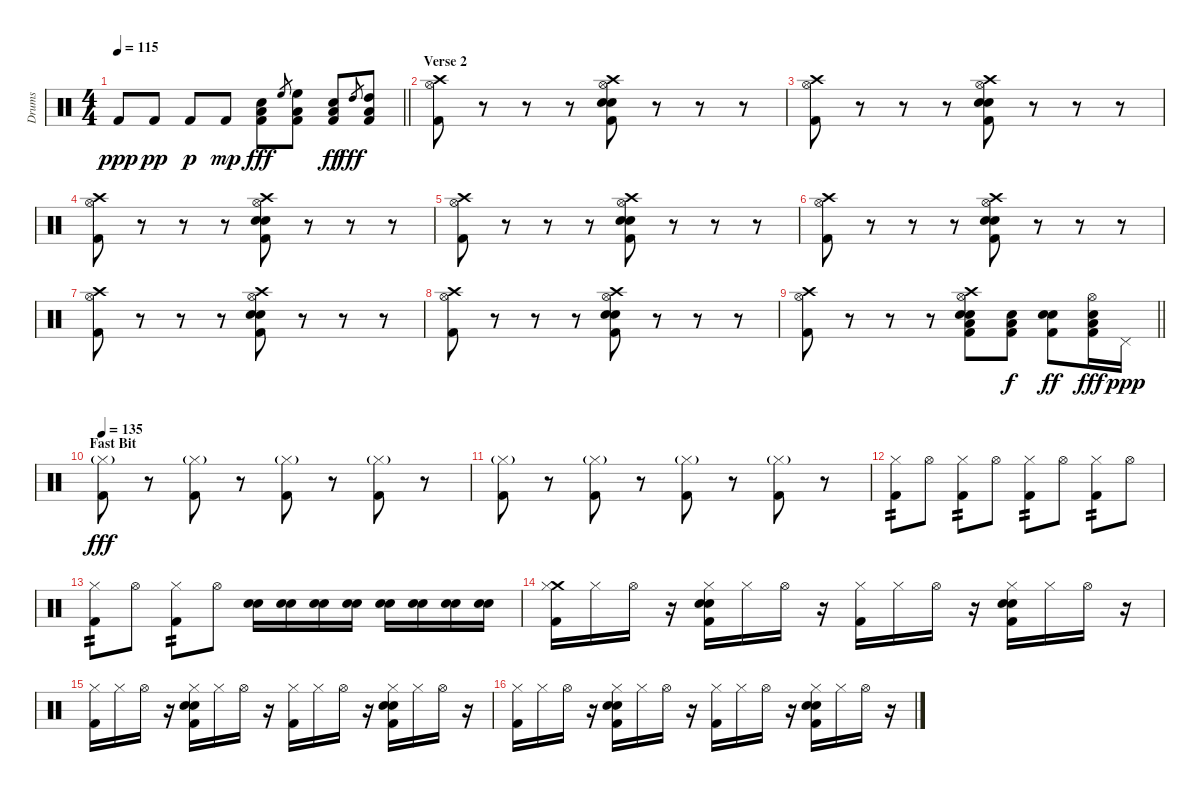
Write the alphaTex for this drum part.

\track ("Drums" "Drums") {instrument percussion}
\staff {score}
\articulation defaults
\ts (4 4)
\tempo 115
\clef neutral
\barLineRight lightlight
\ks c "Kick (hit) 2".8{dy ppp} "Kick (hit) 2".8{dy pp} "Kick (hit) 2".8{dy p} "Kick (hit) 2".8{dy mp}
("Snare (hit) 2" "Low Floor Tom (hit)" "Kick (hit) 2").8{dy fff} "High Floor Tom (hit)".8{gr} ("High Floor Tom (hit)" "Low Floor Tom (hit)" "Kick (hit) 2").8 ("Electric Snare (hit)" "Low Floor Tom (hit)" "Kick (hit) 2").8{dy ff} "High Tom (hit)".8{gr dy fff} ("High Tom (hit)" "Low Floor Tom (hit)" "Kick (hit) 2").8 |
\section ("" "Verse 2")
("Crash high (hit)" "Hi-Hat (open)" "Kick (hit) 2").8 r.8 r.8 r.8 ("Crash high (hit)" "Hi-Hat (open)" "Electric Snare (hit)" "Snare (hit) 2" "Kick (hit) 2").8 r.8 r.8 r.8 |
("Crash high (hit)" "Hi-Hat (open)" "Kick (hit) 2").8 r.8 r.8 r.8 ("Crash high (hit)" "Hi-Hat (open)" "Electric Snare (hit)" "Snare (hit) 2" "Kick (hit) 2").8 r.8 r.8 r.8 |
("Crash high (hit)" "Hi-Hat (open)" "Kick (hit) 2").8 r.8 r.8 r.8 ("Crash high (hit)" "Hi-Hat (open)" "Electric Snare (hit)" "Snare (hit) 2" "Kick (hit) 2").8 r.8 r.8 r.8 |
("Crash high (hit)" "Hi-Hat (open)" "Kick (hit) 2").8 r.8 r.8 r.8 ("Crash high (hit)" "Hi-Hat (open)" "Electric Snare (hit)" "Snare (hit) 2" "Kick (hit) 2").8 r.8 r.8 r.8 |
("Crash high (hit)" "Hi-Hat (open)" "Kick (hit) 2").8 r.8 r.8 r.8 ("Crash high (hit)" "Hi-Hat (open)" "Electric Snare (hit)" "Snare (hit) 2" "Kick (hit) 2").8 r.8 r.8 r.8 |
("Crash high (hit)" "Hi-Hat (open)" "Kick (hit) 2").8 r.8 r.8 r.8 ("Crash high (hit)" "Hi-Hat (open)" "Electric Snare (hit)" "Snare (hit) 2" "Kick (hit) 2").8 r.8 r.8 r.8 |
("Crash high (hit)" "Hi-Hat (open)" "Kick (hit) 2").8 r.8 r.8 r.8 ("Crash high (hit)" "Hi-Hat (open)" "Electric Snare (hit)" "Snare (hit) 2" "Kick (hit) 2").8 r.8 r.8 r.8 |
\barLineRight lightlight
("Crash high (hit)" "Hi-Hat (open)" "Kick (hit) 2").8 r.8 r.8 r.8 ("Crash high (hit)" "Hi-Hat (open)" "Electric Snare (hit)" "Snare (hit) 2" "Low Floor Tom (hit)" "Kick (hit) 2").8 ("Snare (hit) 2" "Low Floor Tom (hit)" "Kick (hit) 2").8{dy f} ("Snare (hit) 2" "Electric Snare (hit)" "Kick (hit) 2").8{dy ff} ("Hi-Hat (open)" "Snare (hit) 2" "Low Floor Tom (hit)" "Kick (hit) 2").16{dy fff} "Pedal Hi-Hat (hit)".16{dy ppp} |
\section ("" "Fast Bit")
\tempo 135
("Hi-Hat (closed)"{g} "Kick (hit) 2").8{dy fff} r.8 ("Hi-Hat (closed)"{g} "Kick (hit) 2").8 r.8 ("Hi-Hat (closed)"{g} "Kick (hit) 2").8 r.8 ("Hi-Hat (closed)"{g} "Kick (hit) 2").8 r.8 |
("Hi-Hat (closed)"{g} "Kick (hit) 2").8 r.8 ("Hi-Hat (closed)"{g} "Kick (hit) 2").8 r.8 ("Hi-Hat (closed)"{g} "Kick (hit) 2").8 r.8 ("Hi-Hat (closed)"{g} "Kick (hit) 2").8 r.8 |
("Hi-Hat (closed)" "Kick (hit) 2").8{tp 2} "Hi-Hat (open)".8 ("Hi-Hat (closed)" "Kick (hit) 2").8{tp 2} "Hi-Hat (open)".8 ("Hi-Hat (closed)" "Kick (hit) 2").8{tp 2} "Hi-Hat (open)".8 ("Hi-Hat (closed)" "Kick (hit) 2").8{tp 2} "Hi-Hat (open)".8 |
("Hi-Hat (closed)" "Kick (hit) 2").8{tp 2} "Hi-Hat (open)".8 ("Hi-Hat (closed)" "Kick (hit) 2").8{tp 2} "Hi-Hat (open)".8 ("Snare (hit) 2" "Electric Snare (hit)").16 ("Snare (hit) 2" "Electric Snare (hit)").16 ("Snare (hit) 2" "Electric Snare (hit)").16 ("Snare (hit) 2" "Electric Snare (hit)").16 ("Snare (hit) 2" "Electric Snare (hit)").16 ("Snare (hit) 2" "Electric Snare (hit)").16 ("Snare (hit) 2" "Electric Snare (hit)").16 ("Snare (hit) 2" "Electric Snare (hit)").16 |
("Crash medium (hit)" "Hi-Hat (closed)" "Kick (hit) 2").16 "Hi-Hat (closed)".16 "Hi-Hat (open)".16 r.16 ("Hi-Hat (closed)" "Snare (hit) 2" "Electric Snare (hit)" "Kick (hit) 2").16 "Hi-Hat (closed)".16 "Hi-Hat (open)".16 r.16 ("Hi-Hat (closed)" "Kick (hit) 2").16 "Hi-Hat (closed)".16 "Hi-Hat (open)".16 r.16 ("Hi-Hat (closed)" "Snare (hit) 2" "Electric Snare (hit)" "Kick (hit) 2").16 "Hi-Hat (closed)".16 "Hi-Hat (open)".16 r.16 |
("Hi-Hat (closed)" "Kick (hit) 2").16 "Hi-Hat (closed)".16 "Hi-Hat (open)".16 r.16 ("Hi-Hat (closed)" "Snare (hit) 2" "Electric Snare (hit)" "Kick (hit) 2").16 "Hi-Hat (closed)".16 "Hi-Hat (open)".16 r.16 ("Hi-Hat (closed)" "Kick (hit) 2").16 "Hi-Hat (closed)".16 "Hi-Hat (open)".16 r.16 ("Hi-Hat (closed)" "Snare (hit) 2" "Electric Snare (hit)" "Kick (hit) 2").16 "Hi-Hat (closed)".16 "Hi-Hat (open)".16 r.16 |
("Hi-Hat (closed)" "Kick (hit) 2").16 "Hi-Hat (closed)".16 "Hi-Hat (open)".16 r.16 ("Hi-Hat (closed)" "Snare (hit) 2" "Electric Snare (hit)" "Kick (hit) 2").16 "Hi-Hat (closed)".16 "Hi-Hat (open)".16 r.16 ("Hi-Hat (closed)" "Kick (hit) 2").16 "Hi-Hat (closed)".16 "Hi-Hat (open)".16 r.16 ("Hi-Hat (closed)" "Snare (hit) 2" "Electric Snare (hit)" "Kick (hit) 2").16 "Hi-Hat (closed)".16 "Hi-Hat (open)".16 r.16
